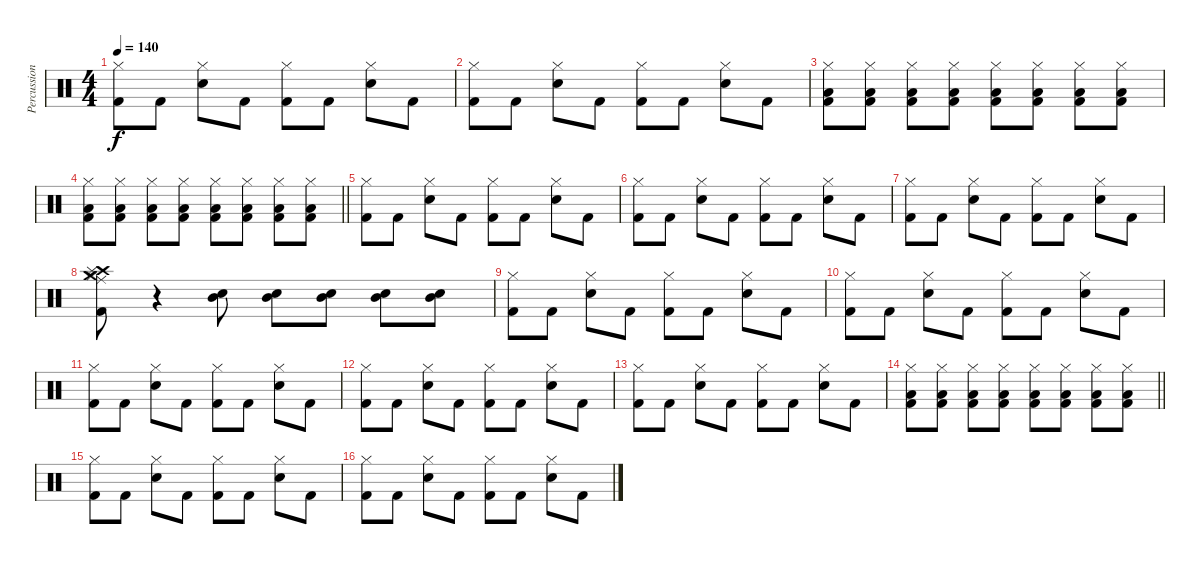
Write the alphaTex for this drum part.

\track ("Percussion" "Percussion") {instrument percussion}
\staff {score}
\articulation defaults
\ts (4 4)
\tempo 140
\clef neutral
\ks c
("Hi-Hat (closed)" "Kick (hit) 2").8{dy f} "Kick (hit) 2".8 ("Electric Snare (hit)" "Hi-Hat (closed)").8 "Kick (hit) 2".8 ("Hi-Hat (closed)" "Kick (hit) 2").8 "Kick (hit) 2".8 ("Electric Snare (hit)" "Hi-Hat (closed)").8 "Kick (hit) 2".8 |
("Hi-Hat (closed)" "Kick (hit) 2").8 "Kick (hit) 2".8 ("Electric Snare (hit)" "Hi-Hat (closed)").8 "Kick (hit) 2".8 ("Hi-Hat (closed)" "Kick (hit) 2").8 "Kick (hit) 2".8 ("Electric Snare (hit)" "Hi-Hat (closed)").8 "Kick (hit) 2".8 |
("Hi-Hat (closed)" "Kick (hit) 2" "Low Floor Tom (hit)").8 ("Hi-Hat (closed)" "Kick (hit) 2" "Low Floor Tom (hit)").8 ("Hi-Hat (closed)" "Kick (hit) 2" "Low Floor Tom (hit)").8 ("Hi-Hat (closed)" "Kick (hit) 2" "Low Floor Tom (hit)").8 ("Hi-Hat (closed)" "Kick (hit) 2" "Low Floor Tom (hit)").8 ("Hi-Hat (closed)" "Kick (hit) 2" "Low Floor Tom (hit)").8 ("Hi-Hat (closed)" "Kick (hit) 2" "Low Floor Tom (hit)").8 ("Hi-Hat (closed)" "Kick (hit) 2" "Low Floor Tom (hit)").8 |
\barLineRight lightlight
("Hi-Hat (closed)" "Kick (hit) 2" "Low Floor Tom (hit)").8 ("Hi-Hat (closed)" "Kick (hit) 2" "Low Floor Tom (hit)").8 ("Hi-Hat (closed)" "Kick (hit) 2" "Low Floor Tom (hit)").8 ("Hi-Hat (closed)" "Kick (hit) 2" "Low Floor Tom (hit)").8 ("Hi-Hat (closed)" "Kick (hit) 2" "Low Floor Tom (hit)").8 ("Hi-Hat (closed)" "Kick (hit) 2" "Low Floor Tom (hit)").8 ("Hi-Hat (closed)" "Kick (hit) 2" "Low Floor Tom (hit)").8 ("Hi-Hat (closed)" "Kick (hit) 2" "Low Floor Tom (hit)").8 |
("Hi-Hat (closed)" "Kick (hit) 2").8 "Kick (hit) 2".8 ("Electric Snare (hit)" "Hi-Hat (closed)").8 "Kick (hit) 2".8 ("Hi-Hat (closed)" "Kick (hit) 2").8 "Kick (hit) 2".8 ("Electric Snare (hit)" "Hi-Hat (closed)").8 "Kick (hit) 2".8 |
("Hi-Hat (closed)" "Kick (hit) 2").8 "Kick (hit) 2".8 ("Electric Snare (hit)" "Hi-Hat (closed)").8 "Kick (hit) 2".8 ("Hi-Hat (closed)" "Kick (hit) 2").8 "Kick (hit) 2".8 ("Electric Snare (hit)" "Hi-Hat (closed)").8 "Kick (hit) 2".8 |
("Hi-Hat (closed)" "Kick (hit) 2").8 "Kick (hit) 2".8 ("Electric Snare (hit)" "Hi-Hat (closed)").8 "Kick (hit) 2".8 ("Hi-Hat (closed)" "Kick (hit) 2").8 "Kick (hit) 2".8 ("Electric Snare (hit)" "Hi-Hat (closed)").8 "Kick (hit) 2".8 |
("Crash high (hit)" "Hi-Hat (closed)" "Kick (hit) 2" "Ride (middle)" "Crash medium (hit)" "Splash (hit)").8 r.4 ("Mid Tom (hit)" "Snare (hit) 2").8 ("Mid Tom (hit)" "Snare (hit) 2").8 ("Mid Tom (hit)" "Snare (hit) 2").8 ("Mid Tom (hit)" "Snare (hit) 2").8 ("Mid Tom (hit)" "Snare (hit) 2").8 |
("Hi-Hat (closed)" "Kick (hit) 2").8 "Kick (hit) 2".8 ("Electric Snare (hit)" "Hi-Hat (closed)").8 "Kick (hit) 2".8 ("Hi-Hat (closed)" "Kick (hit) 2").8 "Kick (hit) 2".8 ("Electric Snare (hit)" "Hi-Hat (closed)").8 "Kick (hit) 2".8 |
("Hi-Hat (closed)" "Kick (hit) 2").8 "Kick (hit) 2".8 ("Electric Snare (hit)" "Hi-Hat (closed)").8 "Kick (hit) 2".8 ("Hi-Hat (closed)" "Kick (hit) 2").8 "Kick (hit) 2".8 ("Electric Snare (hit)" "Hi-Hat (closed)").8 "Kick (hit) 2".8 |
("Hi-Hat (closed)" "Kick (hit) 2").8 "Kick (hit) 2".8 ("Electric Snare (hit)" "Hi-Hat (closed)").8 "Kick (hit) 2".8 ("Hi-Hat (closed)" "Kick (hit) 2").8 "Kick (hit) 2".8 ("Electric Snare (hit)" "Hi-Hat (closed)").8 "Kick (hit) 2".8 |
("Hi-Hat (closed)" "Kick (hit) 2").8 "Kick (hit) 2".8 ("Electric Snare (hit)" "Hi-Hat (closed)").8 "Kick (hit) 2".8 ("Hi-Hat (closed)" "Kick (hit) 2").8 "Kick (hit) 2".8 ("Electric Snare (hit)" "Hi-Hat (closed)").8 "Kick (hit) 2".8 |
("Hi-Hat (closed)" "Kick (hit) 2").8 "Kick (hit) 2".8 ("Electric Snare (hit)" "Hi-Hat (closed)").8 "Kick (hit) 2".8 ("Hi-Hat (closed)" "Kick (hit) 2").8 "Kick (hit) 2".8 ("Electric Snare (hit)" "Hi-Hat (closed)").8 "Kick (hit) 2".8 |
\barLineRight lightlight
("Hi-Hat (closed)" "Kick (hit) 2" "Low Floor Tom (hit)").8 ("Hi-Hat (closed)" "Kick (hit) 2" "Low Floor Tom (hit)").8 ("Hi-Hat (closed)" "Kick (hit) 2" "Low Floor Tom (hit)").8 ("Hi-Hat (closed)" "Kick (hit) 2" "Low Floor Tom (hit)").8 ("Hi-Hat (closed)" "Kick (hit) 2" "Low Floor Tom (hit)").8 ("Hi-Hat (closed)" "Kick (hit) 2" "Low Floor Tom (hit)").8 ("Hi-Hat (closed)" "Kick (hit) 2" "Low Floor Tom (hit)").8 ("Hi-Hat (closed)" "Kick (hit) 2" "Low Floor Tom (hit)").8 |
("Hi-Hat (closed)" "Kick (hit) 2").8 "Kick (hit) 2".8 ("Electric Snare (hit)" "Hi-Hat (closed)").8 "Kick (hit) 2".8 ("Hi-Hat (closed)" "Kick (hit) 2").8 "Kick (hit) 2".8 ("Electric Snare (hit)" "Hi-Hat (closed)").8 "Kick (hit) 2".8 |
("Hi-Hat (closed)" "Kick (hit) 2").8 "Kick (hit) 2".8 ("Electric Snare (hit)" "Hi-Hat (closed)").8 "Kick (hit) 2".8 ("Hi-Hat (closed)" "Kick (hit) 2").8 "Kick (hit) 2".8 ("Electric Snare (hit)" "Hi-Hat (closed)").8 "Kick (hit) 2".8
